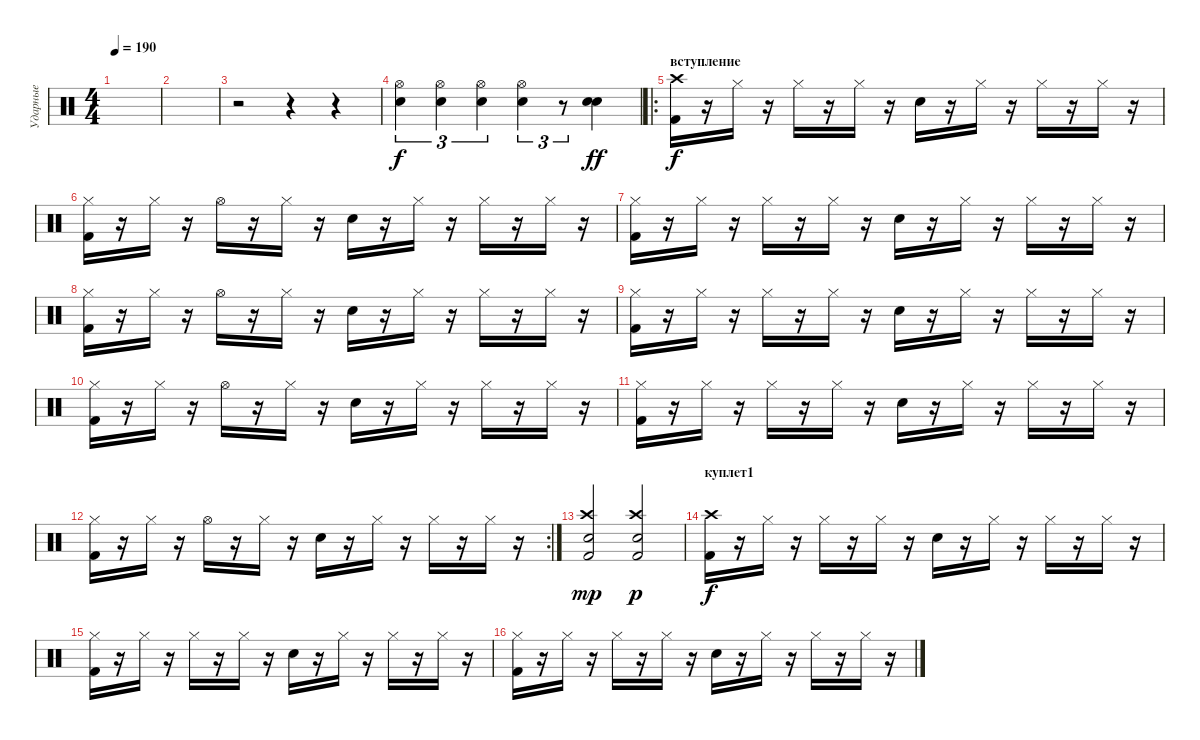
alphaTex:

\track ("Ударные" "Ударные") {instrument percussion}
\staff {score}
\articulation defaults
\ts (4 4)
\tempo 190
\clef neutral
\ks c
|
|
r.2 r.4 r.4 |
("Snare (hit) 2" "Hi-Hat (open)").4{tu (3 2)} ("Snare (hit) 2" "Hi-Hat (open)").4{tu (3 2)} ("Snare (hit) 2" "Hi-Hat (open)").4{tu (3 2)} ("Snare (hit) 2" "Hi-Hat (open)").4{tu (3 2)} r.8{tu (3 2)} ("Snare (hit) 2" "Snare (hit) 2").4{dy ff} |
\ro
\section ("" "вступление")
("Crash high (hit)" "Kick (hit) 2").16{dy f} r.16 "Hi-Hat (closed)".16 r.16 "Hi-Hat (closed)".16 r.16 "Hi-Hat (closed)".16 r.16 "Snare (hit) 2".16 r.16 "Hi-Hat (closed)".16 r.16 "Hi-Hat (closed)".16 r.16 "Hi-Hat (closed)".16 r.16 |
("Hi-Hat (closed)" "Kick (hit) 2").16 r.16 "Hi-Hat (closed)".16 r.16 "Hi-Hat (open)".16 r.16 "Hi-Hat (closed)".16 r.16 "Snare (hit) 2".16 r.16 "Hi-Hat (closed)".16 r.16 "Hi-Hat (closed)".16 r.16 "Hi-Hat (closed)".16 r.16 |
("Hi-Hat (closed)" "Kick (hit) 2").16 r.16 "Hi-Hat (closed)".16 r.16 "Hi-Hat (closed)".16 r.16 "Hi-Hat (closed)".16 r.16 "Snare (hit) 2".16 r.16 "Hi-Hat (closed)".16 r.16 "Hi-Hat (closed)".16 r.16 "Hi-Hat (closed)".16 r.16 |
("Hi-Hat (closed)" "Kick (hit) 2").16 r.16 "Hi-Hat (closed)".16 r.16 "Hi-Hat (open)".16 r.16 "Hi-Hat (closed)".16 r.16 "Snare (hit) 2".16 r.16 "Hi-Hat (closed)".16 r.16 "Hi-Hat (closed)".16 r.16 "Hi-Hat (closed)".16 r.16 |
("Hi-Hat (closed)" "Kick (hit) 2").16 r.16 "Hi-Hat (closed)".16 r.16 "Hi-Hat (closed)".16 r.16 "Hi-Hat (closed)".16 r.16 "Snare (hit) 2".16 r.16 "Hi-Hat (closed)".16 r.16 "Hi-Hat (closed)".16 r.16 "Hi-Hat (closed)".16 r.16 |
("Hi-Hat (closed)" "Kick (hit) 2").16 r.16 "Hi-Hat (closed)".16 r.16 "Hi-Hat (open)".16 r.16 "Hi-Hat (closed)".16 r.16 "Snare (hit) 2".16 r.16 "Hi-Hat (closed)".16 r.16 "Hi-Hat (closed)".16 r.16 "Hi-Hat (closed)".16 r.16 |
("Hi-Hat (closed)" "Kick (hit) 2").16 r.16 "Hi-Hat (closed)".16 r.16 "Hi-Hat (closed)".16 r.16 "Hi-Hat (closed)".16 r.16 "Snare (hit) 2".16 r.16 "Hi-Hat (closed)".16 r.16 "Hi-Hat (closed)".16 r.16 "Hi-Hat (closed)".16 r.16 |
\rc 2
("Hi-Hat (closed)" "Kick (hit) 2").16 r.16 "Hi-Hat (closed)".16 r.16 "Hi-Hat (open)".16 r.16 "Hi-Hat (closed)".16 r.16 "Snare (hit) 2".16 r.16 "Hi-Hat (closed)".16 r.16 "Hi-Hat (closed)".16 r.16 "Hi-Hat (closed)".16 r.16 |
("Crash high (hit)" "Snare (hit) 2" "Kick (hit) 2").2{dy mp} ("Crash high (hit)" "Snare (hit) 2" "Kick (hit) 2").2{dy p} |
\section ("" "куплет1")
("Crash high (hit)" "Kick (hit) 2").16{dy f} r.16 "Hi-Hat (closed)".16 r.16 "Hi-Hat (closed)".16 r.16 "Hi-Hat (closed)".16 r.16 "Snare (hit) 2".16 r.16 "Hi-Hat (closed)".16 r.16 "Hi-Hat (closed)".16 r.16 "Hi-Hat (closed)".16 r.16 |
("Hi-Hat (closed)" "Kick (hit) 2").16 r.16 "Hi-Hat (closed)".16 r.16 "Hi-Hat (closed)".16 r.16 "Hi-Hat (closed)".16 r.16 "Snare (hit) 2".16 r.16 "Hi-Hat (closed)".16 r.16 "Hi-Hat (closed)".16 r.16 "Hi-Hat (closed)".16 r.16 |
("Hi-Hat (closed)" "Kick (hit) 2").16 r.16 "Hi-Hat (closed)".16 r.16 "Hi-Hat (closed)".16 r.16 "Hi-Hat (closed)".16 r.16 "Snare (hit) 2".16 r.16 "Hi-Hat (closed)".16 r.16 "Hi-Hat (closed)".16 r.16 "Hi-Hat (closed)".16 r.16
